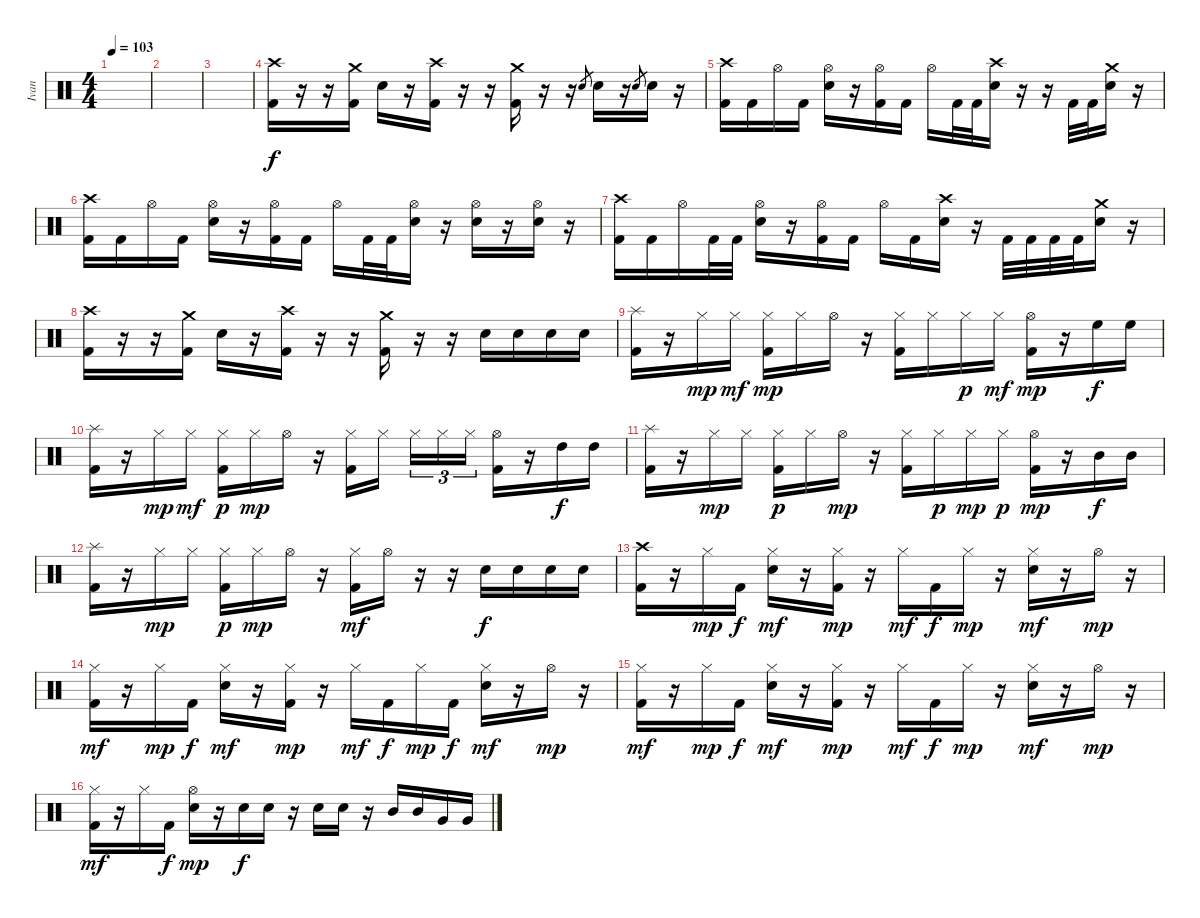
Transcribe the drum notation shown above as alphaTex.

\track ("Ivan" "Ivan") {instrument percussion}
\staff {score}
\articulation defaults
\ts (4 4)
\tempo 103
\clef neutral
\ks c
|
|
|
("Kick (hit) 2" "Crash high (hit)").16 r.16 r.16 ("Kick (hit) 2" "Crash medium (hit)").16 "Snare (hit) 2".16 r.16 ("Kick (hit) 2" "Crash high (hit)").16 r.16 r.16 ("Kick (hit) 2" "Crash medium (hit)").16 r.16 r.16 "Snare (hit) 2".8{gr} "Snare (hit) 2".16 r.16 "Snare (hit) 2".8{gr} "Snare (hit) 2".16 r.16 |
("Kick (hit) 2" "Crash high (hit)").16 "Kick (hit) 2".16 "Hi-Hat (open)".16 "Kick (hit) 2".16 ("Snare (hit) 2" "Hi-Hat (open)").16 r.16 ("Kick (hit) 2" "Hi-Hat (open)").16 "Kick (hit) 2".16 "Hi-Hat (open)".16 "Kick (hit) 2".32 "Kick (hit) 2".32 ("Snare (hit) 2" "Crash high (hit)").16 r.16 r.16 "Kick (hit) 2".32 "Kick (hit) 2".32 ("Snare (hit) 2" "Crash medium (hit)").16 r.16 |
("Crash high (hit)" "Kick (hit) 2").16 "Kick (hit) 2".16 "Hi-Hat (open)".16 "Kick (hit) 2".16 ("Hi-Hat (open)" "Snare (hit) 2").16 r.16 ("Hi-Hat (open)" "Kick (hit) 2").16 "Kick (hit) 2".16 "Hi-Hat (open)".16 "Kick (hit) 2".32 "Kick (hit) 2".32 ("Hi-Hat (open)" "Snare (hit) 2").16 r.16 ("Hi-Hat (open)" "Snare (hit) 2").16 r.16 ("Hi-Hat (open)" "Snare (hit) 2").16 r.16 |
("Kick (hit) 2" "Crash high (hit)").16 "Kick (hit) 2".16 "Hi-Hat (open)".16 "Kick (hit) 2".32 "Kick (hit) 2".32 ("Snare (hit) 2" "Hi-Hat (open)").16 r.16 ("Kick (hit) 2" "Hi-Hat (open)").16 "Kick (hit) 2".16 "Hi-Hat (open)".16 "Kick (hit) 2".16 ("Snare (hit) 2" "Crash high (hit)").16 r.16 "Kick (hit) 2".32 "Kick (hit) 2".32 "Kick (hit) 2".32 "Kick (hit) 2".32 ("Snare (hit) 2" "Crash medium (hit)").16 r.16 |
("Kick (hit) 2" "Crash high (hit)").16 r.16 r.16 ("Kick (hit) 2" "Crash medium (hit)").16 "Snare (hit) 2".16 r.16 ("Kick (hit) 2" "Crash high (hit)").16 r.16 r.16 ("Kick (hit) 2" "Crash medium (hit)").16 r.16 r.16 "Snare (hit) 2".16 "Snare (hit) 2".16 "Snare (hit) 2".16 "Snare (hit) 2".16 |
("Splash (hit)" "Kick (hit) 2").16 r.16 "Hi-Hat (closed)".16{dy mp} "Hi-Hat (closed)".16{dy mf} ("Hi-Hat (closed)" "Kick (hit) 2").16{dy mp} "Hi-Hat (closed)".16 "Hi-Hat (open)".16 r.16 ("Hi-Hat (closed)" "Kick (hit) 2").16 "Hi-Hat (closed)".16 "Hi-Hat (closed)".16{dy p} "Hi-Hat (closed)".16{dy mf} ("Hi-Hat (open)" "Kick (hit) 2").16{dy mp} r.16 "High Floor Tom (hit)".16{dy f} "High Floor Tom (hit)".16 |
("Splash (hit)" "Kick (hit) 2").16 r.16 "Hi-Hat (closed)".16{dy mp} "Hi-Hat (closed)".16{dy mf} ("Hi-Hat (closed)" "Kick (hit) 2").16{dy p} "Hi-Hat (closed)".16{dy mp} "Hi-Hat (open)".16 r.16 ("Hi-Hat (closed)" "Kick (hit) 2").16 "Hi-Hat (closed)".16 "Hi-Hat (closed)".16{tu (3 2)} "Hi-Hat (closed)".16{tu (3 2)} "Hi-Hat (closed)".16{tu (3 2)} ("Hi-Hat (open)" "Kick (hit) 2").16 r.16 "High Tom (hit)".16{dy f} "High Tom (hit)".16 |
("Splash (hit)" "Kick (hit) 2").16 r.16 "Hi-Hat (closed)".16{dy mp} "Hi-Hat (closed)".16 ("Hi-Hat (closed)" "Kick (hit) 2").16{dy p} "Hi-Hat (closed)".16 "Hi-Hat (open)".16{dy mp} r.16 ("Hi-Hat (closed)" "Kick (hit) 2").16 "Hi-Hat (closed)".16{dy p} "Hi-Hat (closed)".16{dy mp} "Hi-Hat (closed)".16{dy p} ("Hi-Hat (open)" "Kick (hit) 2").16{dy mp} r.16 "Mid Tom (hit)".16{dy f} "Mid Tom (hit)".16 |
("Splash (hit)" "Kick (hit) 2").16 r.16 "Hi-Hat (closed)".16{dy mp} "Hi-Hat (closed)".16 ("Hi-Hat (closed)" "Kick (hit) 2").16{dy p} "Hi-Hat (closed)".16{dy mp} "Hi-Hat (open)".16 r.16 ("Hi-Hat (closed)" "Kick (hit) 2").16{dy mf} "Hi-Hat (open)".16 r.16 r.16 "Snare (hit) 2".16{dy f} "Snare (hit) 2".16 "Snare (hit) 2".16 "Snare (hit) 2".16 |
("Crash high (hit)" "Kick (hit) 2").16 r.16 "Hi-Hat (closed)".16{dy mp} "Kick (hit) 2".16{dy f} ("Hi-Hat (closed)" "Snare (hit) 2").16{dy mf} r.16 ("Hi-Hat (closed)" "Kick (hit) 2").16{dy mp} r.16 "Hi-Hat (closed)".16{dy mf} "Kick (hit) 2".16{dy f} "Hi-Hat (closed)".16{dy mp} r.16 ("Hi-Hat (closed)" "Snare (hit) 2").16{dy mf} r.16 "Hi-Hat (open)".16{dy mp} r.16 |
("Hi-Hat (closed)" "Kick (hit) 2").16{dy mf} r.16 "Hi-Hat (closed)".16{dy mp} "Kick (hit) 2".16{dy f} ("Hi-Hat (closed)" "Snare (hit) 2").16{dy mf} r.16 ("Hi-Hat (closed)" "Kick (hit) 2").16{dy mp} r.16 "Hi-Hat (closed)".16{dy mf} "Kick (hit) 2".16{dy f} "Hi-Hat (closed)".16{dy mp} "Kick (hit) 2".16{dy f} ("Hi-Hat (closed)" "Snare (hit) 2").16{dy mf} r.16 "Hi-Hat (open)".16{dy mp} r.16 |
("Hi-Hat (closed)" "Kick (hit) 2").16{dy mf} r.16 "Hi-Hat (closed)".16{dy mp} "Kick (hit) 2".16{dy f} ("Hi-Hat (closed)" "Snare (hit) 2").16{dy mf} r.16 ("Hi-Hat (closed)" "Kick (hit) 2").16{dy mp} r.16 "Hi-Hat (closed)".16{dy mf} "Kick (hit) 2".16{dy f} "Hi-Hat (closed)".16{dy mp} r.16 ("Hi-Hat (closed)" "Snare (hit) 2").16{dy mf} r.16 "Hi-Hat (open)".16{dy mp} r.16 |
("Hi-Hat (closed)" "Kick (hit) 2").16{dy mf} r.16 "Hi-Hat (closed)".16 "Kick (hit) 2".16{dy f} ("Hi-Hat (open)" "Snare (hit) 2").16{dy mp} r.16 "Snare (hit) 2".16{dy f} "Snare (hit) 2".16 r.16 "Snare (hit) 2".16 "Snare (hit) 2".16 r.16 "Mid Tom (hit)".16 "Mid Tom (hit)".16 "Very Low Tom (hit)".16 "Very Low Tom (hit)".16
